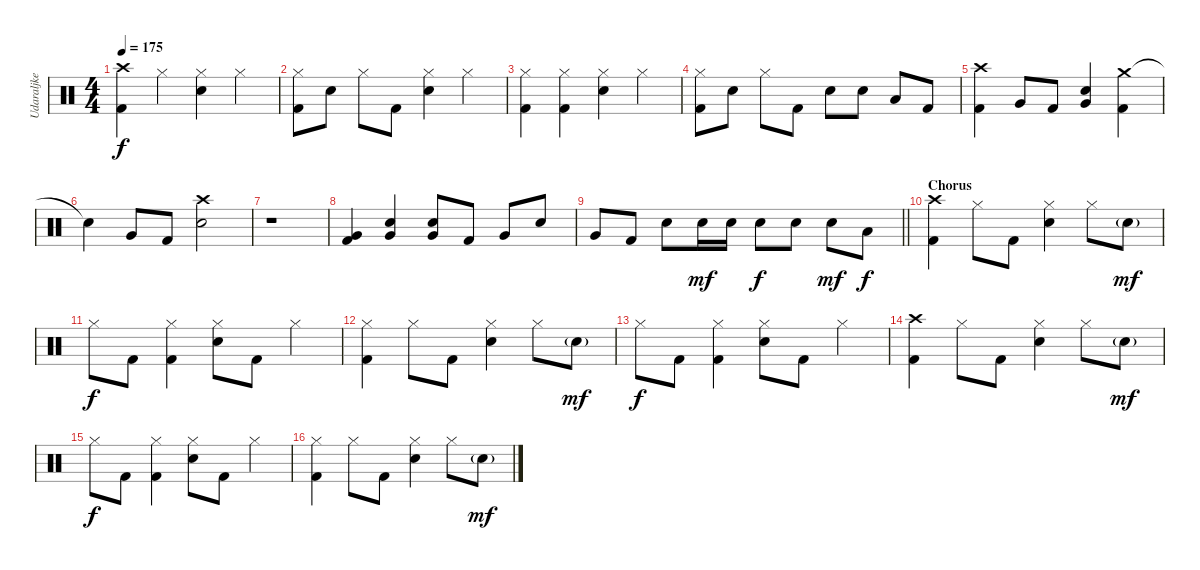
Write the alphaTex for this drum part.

\track ("Udaraljke" "Udaraljke") {instrument percussion}
\staff {score}
\articulation defaults
\ts (4 4)
\tempo 175
\clef neutral
\ks c
("Crash high (hit)" "Kick (hit) 2").4{dy f} "Hi-Hat (closed)".4 ("Hi-Hat (closed)" "Electric Snare (hit)").4 "Hi-Hat (closed)".4 |
("Hi-Hat (closed)" "Kick (hit) 2").8 "Electric Snare (hit)".8 "Hi-Hat (closed)".8 "Kick (hit) 2".8 ("Hi-Hat (closed)" "Electric Snare (hit)").4 "Hi-Hat (closed)".4 |
("Hi-Hat (closed)" "Kick (hit) 2").4 ("Hi-Hat (closed)" "Kick (hit) 2").4 ("Hi-Hat (closed)" "Electric Snare (hit)").4 "Hi-Hat (closed)".4 |
("Hi-Hat (closed)" "Kick (hit) 2").8 "Electric Snare (hit)".8 "Hi-Hat (closed)".8 "Kick (hit) 2".8 "Electric Snare (hit)".8 "Electric Snare (hit)".8 "Low Tom (hit)".8 "Kick (hit) 2".8 |
("Crash high (hit)" "Kick (hit) 2").4 "Very Low Tom (hit)".8 "Kick (hit) 2".8 ("Very Low Tom (hit)" "Electric Snare (hit)").4 ("Crash medium (hit)" "Kick (hit) 2").4 |
"Snare (hit)"{t}.4 "Very Low Tom (hit)".8 "Kick (hit) 2".8 ("Crash high (hit)" "Electric Snare (hit)").2 |
r.1 |
("Very Low Tom (hit)" "Kick (hit) 2").4 ("Very Low Tom (hit)" "Electric Snare (hit)").4 ("Very Low Tom (hit)" "Electric Snare (hit)").8 "Kick (hit) 2".8 "Very Low Tom (hit)".8 "Electric Snare (hit)".8 |
\barLineRight lightlight "Very Low Tom (hit)".8 "Kick (hit) 2".8 "Electric Snare (hit)".8 "Electric Snare (hit)".16{dy mf} "Electric Snare (hit)".16 "Electric Snare (hit)".8{dy f} "Electric Snare (hit)".8 "Electric Snare (hit)".8{dy mf} "Low Tom (hit)".8{dy f}
|
\section ("" "Chorus")
("Crash high (hit)" "Kick (hit) 2").4 "Hi-Hat (closed)".8 "Kick (hit) 2".8 ("Hi-Hat (closed)" "Electric Snare (hit)").4 "Hi-Hat (closed)".8 "Electric Snare (hit)"{g}.8{dy mf} |
"Hi-Hat (closed)".8{dy f} "Kick (hit) 2".8 ("Hi-Hat (closed)" "Kick (hit) 2").4 ("Hi-Hat (closed)" "Electric Snare (hit)").8 "Kick (hit) 2".8 "Hi-Hat (closed)".4 |
("Hi-Hat (closed)" "Kick (hit) 2").4 "Hi-Hat (closed)".8 "Kick (hit) 2".8 ("Hi-Hat (closed)" "Electric Snare (hit)").4 "Hi-Hat (closed)".8 "Electric Snare (hit)"{g}.8{dy mf} |
"Hi-Hat (closed)".8{dy f} "Kick (hit) 2".8 ("Hi-Hat (closed)" "Kick (hit) 2").4 ("Hi-Hat (closed)" "Electric Snare (hit)").8 "Kick (hit) 2".8 "Hi-Hat (closed)".4 |
("Crash high (hit)" "Kick (hit) 2").4 "Hi-Hat (closed)".8 "Kick (hit) 2".8 ("Hi-Hat (closed)" "Electric Snare (hit)").4 "Hi-Hat (closed)".8 "Electric Snare (hit)"{g}.8{dy mf} |
"Hi-Hat (closed)".8{dy f} "Kick (hit) 2".8 ("Hi-Hat (closed)" "Kick (hit) 2").4 ("Hi-Hat (closed)" "Electric Snare (hit)").8 "Kick (hit) 2".8 "Hi-Hat (closed)".4 |
("Hi-Hat (closed)" "Kick (hit) 2").4 "Hi-Hat (closed)".8 "Kick (hit) 2".8 ("Hi-Hat (closed)" "Electric Snare (hit)").4 "Hi-Hat (closed)".8 "Electric Snare (hit)"{g}.8{dy mf}
